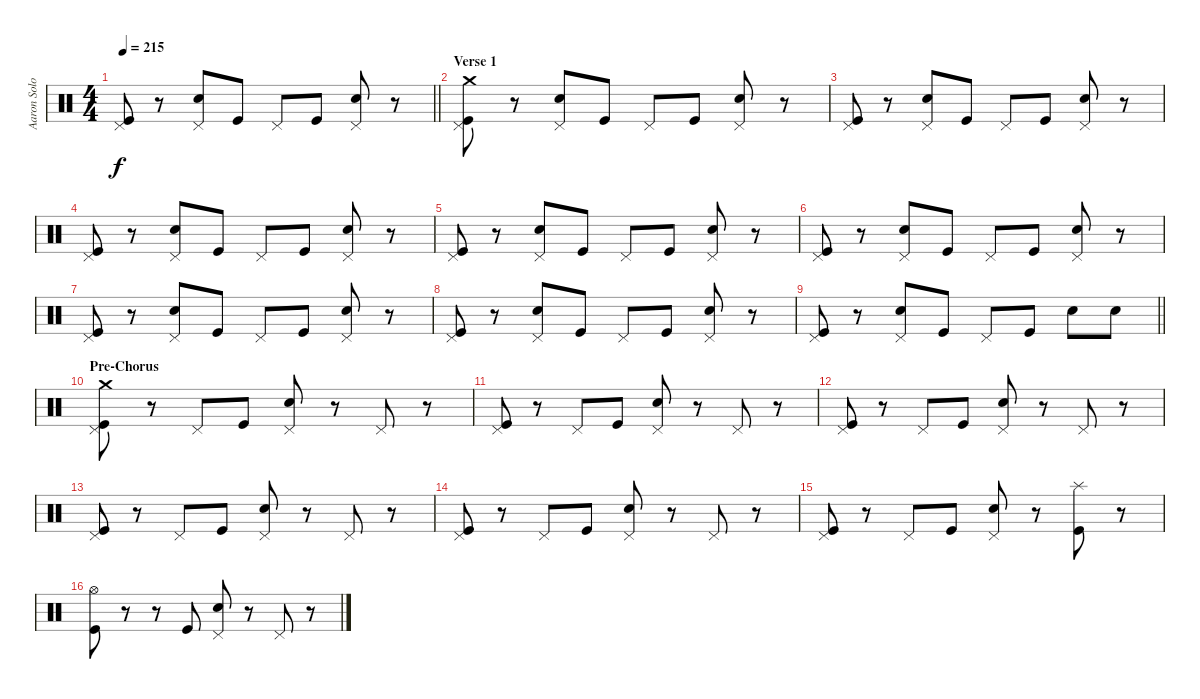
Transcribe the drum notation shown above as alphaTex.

\track ("Aaron Solowoniuk" "Aaron Solo") {instrument percussion}
\staff {score}
\articulation defaults
\ts (4 4)
\tempo 215
\clef neutral
\barLineRight lightlight
\ks c
("Pedal Hi-Hat (hit)" "Kick (hit)").8{dy f} r.8 ("Pedal Hi-Hat (hit)" "Electric Snare (hit)").8 "Kick (hit)".8 "Pedal Hi-Hat (hit)".8 "Kick (hit)".8 ("Pedal Hi-Hat (hit)" "Electric Snare (hit)").8 r.8 |
\section ("" "Verse 1")
("Crash medium (hit)" "Pedal Hi-Hat (hit)" "Kick (hit)").8 r.8 ("Pedal Hi-Hat (hit)" "Electric Snare (hit)").8 "Kick (hit)".8 "Pedal Hi-Hat (hit)".8 "Kick (hit)".8 ("Pedal Hi-Hat (hit)" "Electric Snare (hit)").8 r.8 |
("Pedal Hi-Hat (hit)" "Kick (hit)").8 r.8 ("Pedal Hi-Hat (hit)" "Electric Snare (hit)").8 "Kick (hit)".8 "Pedal Hi-Hat (hit)".8 "Kick (hit)".8 ("Pedal Hi-Hat (hit)" "Electric Snare (hit)").8 r.8 |
("Pedal Hi-Hat (hit)" "Kick (hit)").8 r.8 ("Pedal Hi-Hat (hit)" "Electric Snare (hit)").8 "Kick (hit)".8 "Pedal Hi-Hat (hit)".8 "Kick (hit)".8 ("Pedal Hi-Hat (hit)" "Electric Snare (hit)").8 r.8 |
("Pedal Hi-Hat (hit)" "Kick (hit)").8 r.8 ("Pedal Hi-Hat (hit)" "Electric Snare (hit)").8 "Kick (hit)".8 "Pedal Hi-Hat (hit)".8 "Kick (hit)".8 ("Pedal Hi-Hat (hit)" "Electric Snare (hit)").8 r.8 |
("Pedal Hi-Hat (hit)" "Kick (hit)").8 r.8 ("Pedal Hi-Hat (hit)" "Electric Snare (hit)").8 "Kick (hit)".8 "Pedal Hi-Hat (hit)".8 "Kick (hit)".8 ("Pedal Hi-Hat (hit)" "Electric Snare (hit)").8 r.8 |
("Pedal Hi-Hat (hit)" "Kick (hit)").8 r.8 ("Pedal Hi-Hat (hit)" "Electric Snare (hit)").8 "Kick (hit)".8 "Pedal Hi-Hat (hit)".8 "Kick (hit)".8 ("Pedal Hi-Hat (hit)" "Electric Snare (hit)").8 r.8 |
("Pedal Hi-Hat (hit)" "Kick (hit)").8 r.8 ("Pedal Hi-Hat (hit)" "Electric Snare (hit)").8 "Kick (hit)".8 "Pedal Hi-Hat (hit)".8 "Kick (hit)".8 ("Pedal Hi-Hat (hit)" "Electric Snare (hit)").8 r.8 |
\barLineRight lightlight
("Pedal Hi-Hat (hit)" "Kick (hit)").8 r.8 ("Pedal Hi-Hat (hit)" "Electric Snare (hit)").8 "Kick (hit)".8 "Pedal Hi-Hat (hit)".8 "Kick (hit)".8 "Electric Snare (hit)".8 "Electric Snare (hit)".8 |
\section ("" "Pre-Chorus")
("Crash medium (hit)" "Pedal Hi-Hat (hit)" "Kick (hit)").8 r.8 "Pedal Hi-Hat (hit)".8 "Kick (hit)".8 ("Pedal Hi-Hat (hit)" "Electric Snare (hit)").8 r.8 "Pedal Hi-Hat (hit)".8 r.8 |
("Pedal Hi-Hat (hit)" "Kick (hit)").8 r.8 "Pedal Hi-Hat (hit)".8 "Kick (hit)".8 ("Pedal Hi-Hat (hit)" "Electric Snare (hit)").8 r.8 "Pedal Hi-Hat (hit)".8 r.8 |
("Pedal Hi-Hat (hit)" "Kick (hit)").8 r.8 "Pedal Hi-Hat (hit)".8 "Kick (hit)".8 ("Pedal Hi-Hat (hit)" "Electric Snare (hit)").8 r.8 "Pedal Hi-Hat (hit)".8 r.8 |
("Pedal Hi-Hat (hit)" "Kick (hit)").8 r.8 "Pedal Hi-Hat (hit)".8 "Kick (hit)".8 ("Pedal Hi-Hat (hit)" "Electric Snare (hit)").8 r.8 "Pedal Hi-Hat (hit)".8 r.8 |
("Pedal Hi-Hat (hit)" "Kick (hit)").8 r.8 "Pedal Hi-Hat (hit)".8 "Kick (hit)".8 ("Pedal Hi-Hat (hit)" "Electric Snare (hit)").8 r.8 "Pedal Hi-Hat (hit)".8 r.8 |
("Pedal Hi-Hat (hit)" "Kick (hit)").8 r.8 "Pedal Hi-Hat (hit)".8 "Kick (hit)".8 ("Pedal Hi-Hat (hit)" "Electric Snare (hit)").8 r.8 ("Splash (hit)" "Kick (hit)").8 r.8 |
("Hi-Hat (open)" "Kick (hit)").8 r.8 r.8 "Kick (hit)".8 ("Pedal Hi-Hat (hit)" "Electric Snare (hit)").8 r.8 "Pedal Hi-Hat (hit)".8 r.8
